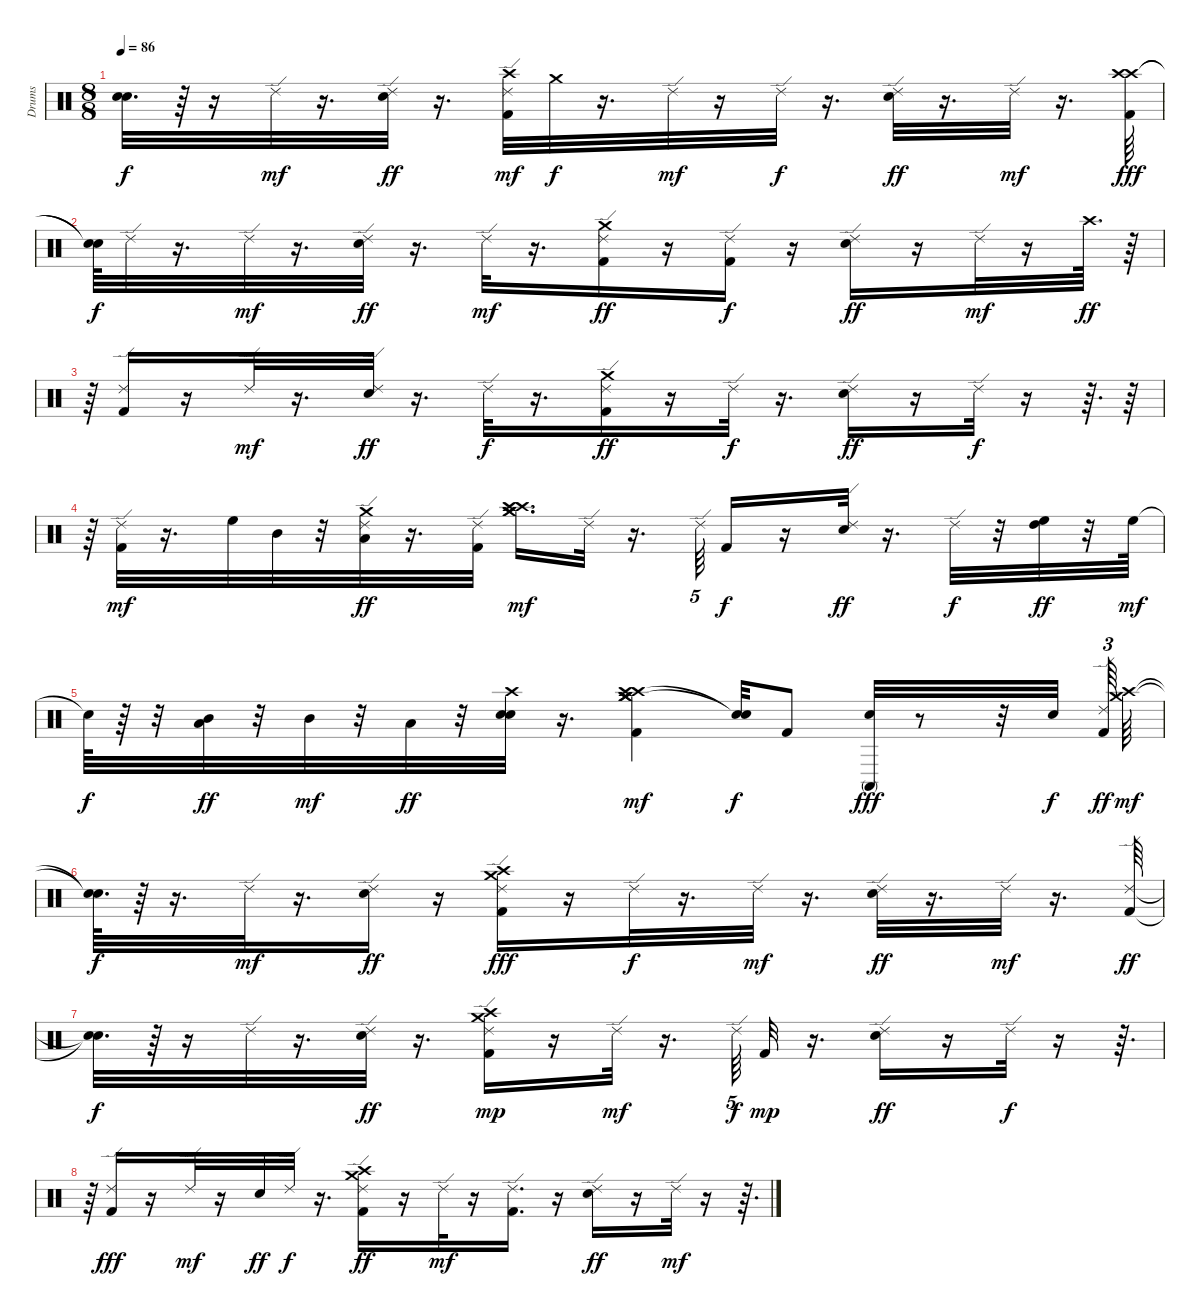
\track ("Drums" "Drums") {instrument percussion}
\staff {score}
\articulation defaults
\ts (8 8)
\tempo 86
\clef neutral
\ks c
("Snare (hit)"{t} "Snare (hit)"{t}).32{d dy f} r.64 r.16 "Ride (edge) 2".32{dy mf} r.16{d} ("Ride (edge) 2" "Electric Snare (hit)").32{dy ff} r.16{d} ("Kick (hit) 2" "Ride (edge) 2" "Crash high (hit)").32{dy mf} "Crash medium (hit)".32{dy f} r.16{d} "Ride (edge) 2".32{dy mf} r.16 "Ride (edge) 2".32{dy f} r.16{d} ("Ride (edge) 2" "Electric Snare (hit)").32{dy ff} r.16{d} "Ride (edge) 2".32{dy mf} r.16{d} ("Crash high (hit)" "Crash high (hit)" "Kick (hit) 2").64{dy fff} |
("Snare (hit)"{t} "Snare (hit)"{t}).64{dy f} "Ride (edge) 2".32 r.16{d} "Ride (edge) 2".32{dy mf} r.16{d} ("Ride (edge) 2" "Electric Snare (hit)").32{dy ff} r.16{d} "Ride (edge) 2".32{dy mf} r.16{d} ("Kick (hit) 2" "Crash medium (hit)" "Ride (edge) 2").16{dy ff} r.16 ("Ride (edge) 2" "Kick (hit) 2").16{dy f} r.16 ("Ride (edge) 2" "Electric Snare (hit)").16{dy ff} r.16 "Ride (edge) 2".32{dy mf} r.16 "Crash high (hit)".64{d dy ff} r.64 |
r.64 ("Kick (hit) 2" "Ride (edge) 2").16 r.16 "Ride (edge) 2".32{dy mf} r.16{d} ("Electric Snare (hit)" "Ride (edge) 2").32{dy ff} r.16{d} "Ride (edge) 2".32{dy f} r.16{d} ("Kick (hit) 2" "Crash medium (hit)" "Ride (edge) 2").16{dy ff} r.16 "Ride (edge) 2".32{dy f} r.16{d} ("Electric Snare (hit)" "Ride (edge) 2").16{dy ff} r.16 "Ride (edge) 2".32{dy f} r.16 r.64{d} r.64 |
r.64 ("Kick (hit) 2" "Ride (edge) 2").32{dy mf} r.16{d} "High Floor Tom (hit)".32 "Mid Tom (hit)".32 r.32 ("Ride (edge) 2" "Crash medium (hit)" "Low Floor Tom (hit)").32{dy ff} r.16{d} ("Kick (hit) 2" "Ride (edge) 2").32 ("Crash medium (hit)" "Crash high (hit)" "Crash medium (hit)" "Crash high (hit)").16{d dy mf} "Ride (edge) 2".32 r.16{d} "Ride (edge) 2".64{tu (5 4)} "Kick (hit) 2".16{dy f} r.16 ("Electric Snare (hit)" "Ride (edge) 2").32{dy ff} r.16{d} "Ride (edge) 2".32{dy f} r.32 ("High Floor Tom (hit)" "High Tom (hit)").32{dy ff} r.32 "High Floor Tom (hit)".64{dy mf} |
"Snare (hit)"{t}.64{dy f} r.64 r.32 ("Mid Tom (hit)" "Low Tom (hit)").32{dy ff} r.32 "Mid Tom (hit)".32{dy mf} r.32 "Low Floor Tom (hit)".32{dy ff} r.32 ("Crash high (hit)" "Snare (hit) 2" "Electric Snare (hit)").32 r.16{d} ("Crash medium (hit)" "Crash high (hit)" "Crash medium (hit)" "Kick (hit) 2" "Crash medium (hit)" "Crash high (hit)").4{dy mf} ("Snare (hit)"{t} "Snare (hit)"{t}).32{dy f} "Kick (hit) 2".8 ("Conga high (mute)" "Electric Snare (hit)").32{dy fff} r.8 r.32 "Electric Snare (hit)".32{dy f} ("Ride (edge) 2" "Kick (hit) 2").64{tu (3 2) dy ff} ("Crash medium (hit)" "Crash high (hit)").64{dy mf} |
("Snare (hit)"{t} "Snare (hit)"{t}).64{d dy f} r.64 r.16{d} "Ride (edge) 2".32{dy mf} r.16{d} ("Electric Snare (hit)" "Ride (edge) 2").16{dy ff} r.16 ("Crash medium (hit)" "Crash high (hit)" "Ride (edge) 2" "Kick (hit) 2").16{dy fff} r.16 "Ride (edge) 2".32{dy f} r.16{d} "Ride (edge) 2".32{dy mf} r.16{d} ("Electric Snare (hit)" "Ride (edge) 2").32{dy ff} r.16{d} "Ride (edge) 2".32{dy mf} r.16{d} ("Kick (hit) 2" "Ride (edge) 2").64{dy ff} |
("Snare (hit)"{t} "Snare (hit)"{t}).32{d dy f} r.64 r.16 "Ride (edge) 2".32 r.16{d} ("Electric Snare (hit)" "Ride (edge) 2").32{dy ff} r.16{d} ("Kick (hit) 2" "Ride (edge) 2" "Crash high (hit)" "Crash medium (hit)").16{dy mp} r.16 "Ride (edge) 2".32{dy mf} r.16{d} "Ride (edge) 2".64{tu (5 4) dy f} "Kick (hit) 2".32{dy mp} r.16{d} ("Ride (edge) 2" "Electric Snare (hit)").16{dy ff} r.16 "Ride (edge) 2".32{dy f} r.16 r.64{d} |
r.64 ("Kick (hit) 2" "Ride (edge) 2").16{dy fff} r.16 "Ride (edge) 2".32{dy mf} r.16 "Electric Snare (hit)".32{dy ff} "Ride (edge) 2".32{dy f} r.16{d} ("Kick (hit) 2" "Ride (edge) 2" "Crash medium (hit)" "Crash high (hit)").16{dy ff} r.16 "Ride (edge) 2".32{dy mf} r.16 ("Kick (hit) 2" "Ride (edge) 2").16{d} r.16 ("Electric Snare (hit)" "Ride (edge) 2").16{dy ff} r.16 "Ride (edge) 2".32{dy mf} r.16 r.64{d}
